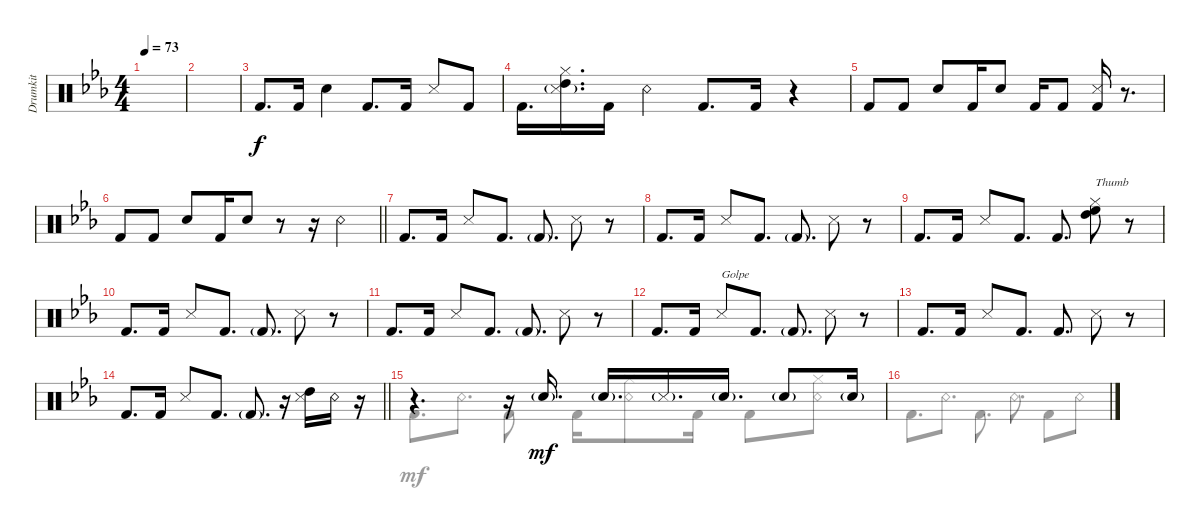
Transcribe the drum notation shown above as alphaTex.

\track ("Drumkit" "Drumkit") {instrument percussion}
\staff {score}
\articulation defaults
\voice
\ts (4 4)
\tempo 73
\clef neutral
\ks cminor
|
|
"Kick (hit) 2".8{d} "Kick (hit) 2".16 "Snare (hit) 2".4 "Kick (hit) 2".8{d} "Kick (hit) 2".16 "Snare (side stick) 3".8 "Kick (hit) 2".8 |
"Kick (hit) 2".16{d} ("High Tom (hit)" "Hi-Hat (closed)" "Snare (side stick) 3"{g}).16{d} "Kick (hit) 2".16 "Snare (rim shot)".4 "Kick (hit) 2".8{d} "Kick (hit) 2".16 r.4 |
"Kick (hit) 2".8 "Kick (hit) 2".8 "Snare (hit) 2".8 "Kick (hit) 2".16 "Snare (hit) 2".8 "Kick (hit) 2".16 "Kick (hit) 2".8 ("Kick (hit) 2" "Snare (side stick) 3").16 r.8{d} |
\barLineRight lightlight "Kick (hit) 2".8 "Kick (hit) 2".8 "Snare (hit) 2".8 "Kick (hit) 2".16 "Snare (hit) 2".8
r.8 r.16 "Snare (rim shot)".4 |
"Kick (hit) 2".8{d} "Kick (hit) 2".16 "Snare (side stick) 3".8 "Kick (hit) 2".8{d} "Kick (hit) 2"{g}.8{d} "Snare (side stick) 3".8 r.8 |
"Kick (hit) 2".8{d} "Kick (hit) 2".16 "Snare (side stick) 3".8 "Kick (hit) 2".8{d} "Kick (hit) 2"{g}.8{d} "Snare (side stick) 3".8 r.8 |
"Kick (hit) 2".8{d} "Kick (hit) 2".16 "Snare (side stick) 3".8 "Kick (hit) 2".8{d} "Kick (hit) 2".8{d} ("High Tom (hit)" "High Floor Tom (hit)" "Hi-Hat (closed)").8{txt "Thumb"} r.8 |
"Kick (hit) 2".8{d} "Kick (hit) 2".16 "Snare (side stick) 3".8 "Kick (hit) 2".8{d} "Kick (hit) 2"{g}.8{d} "Snare (side stick) 3".8 r.8 |
"Kick (hit) 2".8{d} "Kick (hit) 2".16 "Snare (side stick) 3".8 "Kick (hit) 2".8{d} "Kick (hit) 2"{g}.8{d} "Snare (side stick) 3".8 r.8 |
"Kick (hit) 2".8{d} "Kick (hit) 2".16 "Snare (side stick) 3".8{txt "Golpe"} "Kick (hit) 2".8{d} "Kick (hit) 2"{g}.8{d} "Snare (side stick) 3".8 r.8 |
"Kick (hit) 2".8{d} "Kick (hit) 2".16 "Snare (side stick) 3".8 "Kick (hit) 2".8{d} "Kick (hit) 2".8{d} "Snare (side stick) 3".8 r.8 |
\barLineRight lightlight "Kick (hit) 2".8{d} "Kick (hit) 2".16 "Snare (side stick) 3".8 "Kick (hit) 2".8{d} "Kick (hit) 2"{g}.8{d}
r.16 ("High Tom (hit)" "Snare (side stick) 3").16 "Snare (rim shot)".16 r.16 |
r.4{d} r.16 "Snare (hit) 2"{g}.16{d dy mf} "Snare (hit) 2"{g}.16{d} "Snare (side stick) 3"{g}.16{d} "Snare (hit) 2"{g}.16{d} "Snare (hit) 2"{g}.8 "Snare (hit) 2"{g}.16 |
\voice
\clef neutral
\ottava regular
\simile none
\ks cminor
|
|
|
|
|
\barLineRight lightlight
|
|
|
|
|
|
|
|
\barLineRight lightlight
|
"Kick (hit) 2".8{d} "Snare (rim shot)".8{d} "Kick (hit) 2".8 "Kick (hit) 2".16 ("Snare (rim shot)" "Hi-Hat (closed)").8 "Kick (hit) 2".16 "Kick (hit) 2".8 ("Snare (rim shot)" "Hi-Hat (closed)").8 |
"Kick (hit) 2".8{d} "Snare (rim shot)".8{d} "Kick (hit) 2".8{d} "Snare (rim shot)".8{d} "Kick (hit) 2".8 "Snare (rim shot)".8
